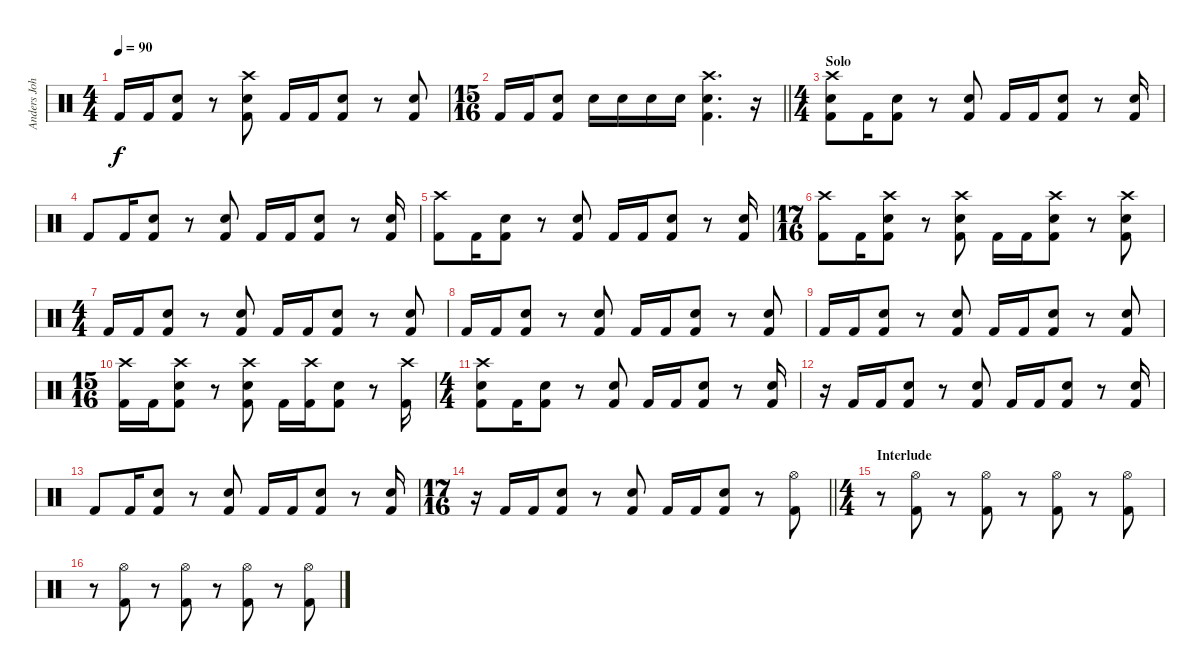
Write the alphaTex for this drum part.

\track ("Anders Johansson Drums" "Anders Joh") {instrument percussion}
\staff {score}
\articulation defaults
\ts (4 4)
\tempo 90
\clef neutral
\ks c "Kick (hit) 2".16{dy f} "Kick (hit) 2".16
("Electric Snare (hit)" "Kick (hit) 2").8 r.8 ("Crash high (hit)" "Electric Snare (hit)" "Kick (hit) 2").8 "Kick (hit) 2".16 "Kick (hit) 2".16 ("Electric Snare (hit)" "Kick (hit) 2").8 r.8 ("Electric Snare (hit)" "Kick (hit) 2").8 |
\ts (15 16)
\barLineRight lightlight "Kick (hit) 2".16 "Kick (hit) 2".16
("Electric Snare (hit)" "Kick (hit) 2").8 "Electric Snare (hit)".16 "Electric Snare (hit)".16 "Electric Snare (hit)".16 "Electric Snare (hit)".16 ("Crash high (hit)" "Electric Snare (hit)" "Kick (hit) 2").4{d} r.16 |
\ts (4 4)
\section ("" "Solo")
("Crash high (hit)" "Electric Snare (hit)" "Kick (hit) 2").8 "Kick (hit) 2".16 ("Electric Snare (hit)" "Kick (hit) 2").8 r.8 ("Electric Snare (hit)" "Kick (hit) 2").8 "Kick (hit) 2".16 "Kick (hit) 2".16 ("Electric Snare (hit)" "Kick (hit) 2").8 r.8 ("Electric Snare (hit)" "Kick (hit) 2").16 |
"Kick (hit) 2".8 "Kick (hit) 2".16 ("Electric Snare (hit)" "Kick (hit) 2").8 r.8 ("Electric Snare (hit)" "Kick (hit) 2").8 "Kick (hit) 2".16 "Kick (hit) 2".16 ("Electric Snare (hit)" "Kick (hit) 2").8 r.8 ("Electric Snare (hit)" "Kick (hit) 2").16 |
("Crash high (hit)" "Kick (hit) 2").8 "Kick (hit) 2".16 ("Electric Snare (hit)" "Kick (hit) 2").8 r.8 ("Electric Snare (hit)" "Kick (hit) 2").8 "Kick (hit) 2".16 "Kick (hit) 2".16 ("Electric Snare (hit)" "Kick (hit) 2").8 r.8 ("Electric Snare (hit)" "Kick (hit) 2").16 |
\ts (17 16)
("Crash high (hit)" "Kick (hit) 2").8 "Kick (hit) 2".16 ("Crash high (hit)" "Electric Snare (hit)" "Kick (hit) 2").8 r.8 ("Crash high (hit)" "Electric Snare (hit)" "Kick (hit) 2").8 "Kick (hit) 2".16 "Kick (hit) 2".16 ("Crash high (hit)" "Electric Snare (hit)" "Kick (hit) 2").8 r.8 ("Crash high (hit)" "Electric Snare (hit)" "Kick (hit) 2").8 |
\ts (4 4)
"Kick (hit) 2".16 "Kick (hit) 2".16 ("Electric Snare (hit)" "Kick (hit) 2").8 r.8 ("Electric Snare (hit)" "Kick (hit) 2").8 "Kick (hit) 2".16 "Kick (hit) 2".16 ("Electric Snare (hit)" "Kick (hit) 2").8 r.8 ("Electric Snare (hit)" "Kick (hit) 2").8 |
"Kick (hit) 2".16 "Kick (hit) 2".16 ("Electric Snare (hit)" "Kick (hit) 2").8 r.8 ("Electric Snare (hit)" "Kick (hit) 2").8 "Kick (hit) 2".16 "Kick (hit) 2".16 ("Electric Snare (hit)" "Kick (hit) 2").8 r.8 ("Electric Snare (hit)" "Kick (hit) 2").8 |
"Kick (hit) 2".16 "Kick (hit) 2".16 ("Electric Snare (hit)" "Kick (hit) 2").8 r.8 ("Electric Snare (hit)" "Kick (hit) 2").8 "Kick (hit) 2".16 "Kick (hit) 2".16 ("Electric Snare (hit)" "Kick (hit) 2").8 r.8 ("Electric Snare (hit)" "Kick (hit) 2").8 |
\ts (15 16)
("Crash high (hit)" "Kick (hit) 2").16 "Kick (hit) 2".16 ("Crash high (hit)" "Electric Snare (hit)" "Kick (hit) 2").8 r.8 ("Crash high (hit)" "Electric Snare (hit)" "Kick (hit) 2").8 "Kick (hit) 2".16 ("Crash high (hit)" "Kick (hit) 2").16 ("Electric Snare (hit)" "Kick (hit) 2").8 r.8 ("Crash high (hit)" "Kick (hit) 2").16 |
\ts (4 4)
("Crash high (hit)" "Electric Snare (hit)" "Kick (hit) 2").8 "Kick (hit) 2".16 ("Electric Snare (hit)" "Kick (hit) 2").8 r.8 ("Electric Snare (hit)" "Kick (hit) 2").8 "Kick (hit) 2".16 "Kick (hit) 2".16 ("Electric Snare (hit)" "Kick (hit) 2").8 r.8 ("Electric Snare (hit)" "Kick (hit) 2").16 |
r.16 "Kick (hit) 2".16 "Kick (hit) 2".16 ("Electric Snare (hit)" "Kick (hit) 2").8 r.8 ("Electric Snare (hit)" "Kick (hit) 2").8 "Kick (hit) 2".16 "Kick (hit) 2".16 ("Electric Snare (hit)" "Kick (hit) 2").8 r.8 ("Electric Snare (hit)" "Kick (hit) 2").16 |
"Kick (hit) 2".8 "Kick (hit) 2".16 ("Electric Snare (hit)" "Kick (hit) 2").8 r.8 ("Electric Snare (hit)" "Kick (hit) 2").8 "Kick (hit) 2".16 "Kick (hit) 2".16 ("Electric Snare (hit)" "Kick (hit) 2").8 r.8 ("Electric Snare (hit)" "Kick (hit) 2").16 |
\ts (17 16)
\barLineRight lightlight
r.16 "Kick (hit) 2".16 "Kick (hit) 2".16 ("Electric Snare (hit)" "Kick (hit) 2").8 r.8 ("Electric Snare (hit)" "Kick (hit) 2").8 "Kick (hit) 2".16 "Kick (hit) 2".16 ("Electric Snare (hit)" "Kick (hit) 2").8 r.8 ("Hi-Hat (open)" "Kick (hit) 2").8 |
\ts (4 4)
\section ("" "Interlude")
r.8 ("Hi-Hat (open)" "Kick (hit) 2").8 r.8 ("Hi-Hat (open)" "Kick (hit) 2").8 r.8 ("Hi-Hat (open)" "Kick (hit) 2").8 r.8 ("Hi-Hat (open)" "Kick (hit) 2").8 |
r.8 ("Hi-Hat (open)" "Kick (hit) 2").8 r.8 ("Hi-Hat (open)" "Kick (hit) 2").8 r.8 ("Hi-Hat (open)" "Kick (hit) 2").8 r.8 ("Hi-Hat (open)" "Kick (hit) 2").8
